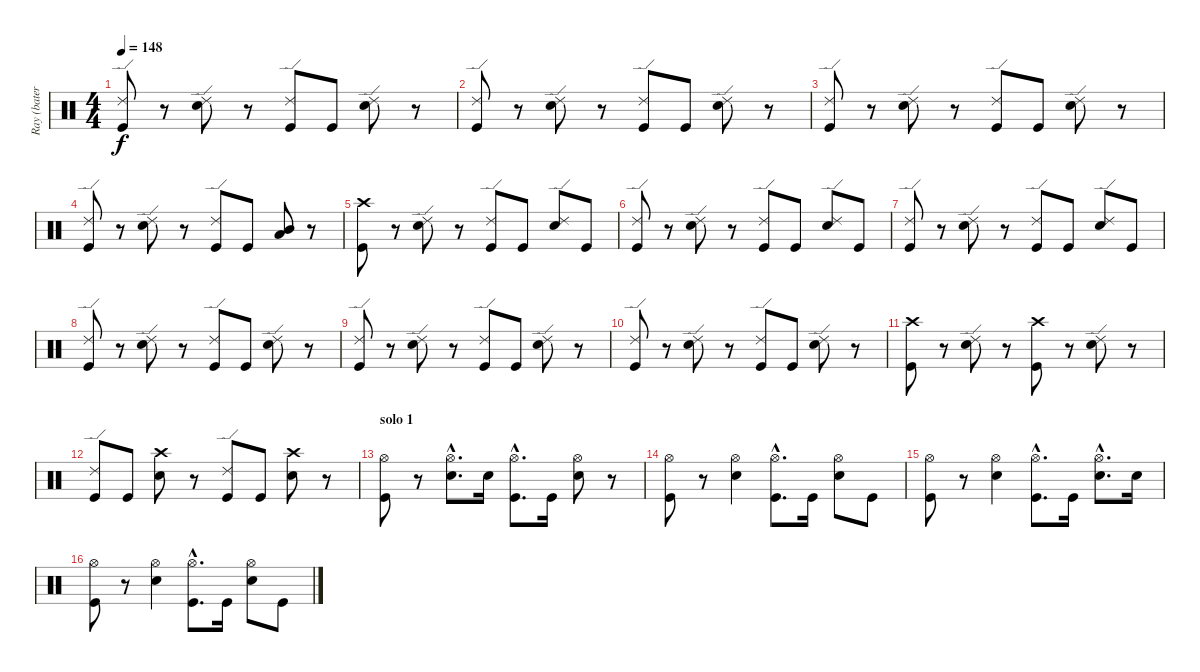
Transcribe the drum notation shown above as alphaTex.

\track ("Ray (batería)" "Ray (bater") {instrument percussion}
\staff {score}
\articulation defaults
\ts (4 4)
\tempo 148
\clef neutral
\ks c
("Ride (edge) 2" "Kick (hit)").8{dy f} r.8 ("Ride (edge) 2" "Snare (hit) 2").8 r.8 ("Ride (edge) 2" "Kick (hit)").8 "Kick (hit)".8 ("Ride (edge) 2" "Snare (hit) 2").8 r.8 |
("Ride (edge) 2" "Kick (hit)").8 r.8 ("Ride (edge) 2" "Snare (hit) 2").8 r.8 ("Ride (edge) 2" "Kick (hit)").8 "Kick (hit)".8 ("Ride (edge) 2" "Snare (hit) 2").8 r.8 |
("Ride (edge) 2" "Kick (hit)").8 r.8 ("Ride (edge) 2" "Snare (hit) 2").8 r.8 ("Ride (edge) 2" "Kick (hit)").8 "Kick (hit)".8 ("Ride (edge) 2" "Snare (hit) 2").8 r.8 |
("Ride (edge) 2" "Kick (hit)").8 r.8 ("Ride (edge) 2" "Snare (hit) 2").8 r.8 ("Ride (edge) 2" "Kick (hit)").8 "Kick (hit)".8 ("Mid Tom (hit)" "Low Tom (hit)").8 r.8 |
("Crash high (hit)" "Kick (hit)").8 r.8 ("Ride (edge) 2" "Snare (hit) 2").8 r.8 ("Ride (edge) 2" "Kick (hit)").8 "Kick (hit)".8 ("Ride (edge) 2" "Snare (hit) 2").8 "Kick (hit)".8 |
("Ride (edge) 2" "Kick (hit)").8 r.8 ("Ride (edge) 2" "Snare (hit) 2").8 r.8 ("Ride (edge) 2" "Kick (hit)").8 "Kick (hit)".8 ("Ride (edge) 2" "Snare (hit) 2").8 "Kick (hit)".8 |
("Ride (edge) 2" "Kick (hit)").8 r.8 ("Ride (edge) 2" "Snare (hit) 2").8 r.8 ("Ride (edge) 2" "Kick (hit)").8 "Kick (hit)".8 ("Ride (edge) 2" "Snare (hit) 2").8 "Kick (hit)".8 |
("Ride (edge) 2" "Kick (hit)").8 r.8 ("Ride (edge) 2" "Snare (hit) 2").8 r.8 ("Ride (edge) 2" "Kick (hit)").8 "Kick (hit)".8 ("Ride (edge) 2" "Snare (hit) 2").8 r.8 |
("Ride (edge) 2" "Kick (hit)").8 r.8 ("Ride (edge) 2" "Snare (hit) 2").8 r.8 ("Ride (edge) 2" "Kick (hit)").8 "Kick (hit)".8 ("Ride (edge) 2" "Snare (hit) 2").8 r.8 |
("Ride (edge) 2" "Kick (hit)").8 r.8 ("Ride (edge) 2" "Snare (hit) 2").8 r.8 ("Ride (edge) 2" "Kick (hit)").8 "Kick (hit)".8 ("Ride (edge) 2" "Snare (hit) 2").8 r.8 |
("Crash high (hit)" "Kick (hit)").8 r.8 ("Ride (edge) 2" "Snare (hit) 2").8 r.8 ("Crash high (hit)" "Kick (hit)").8 r.8 ("Ride (edge) 2" "Snare (hit) 2").8 r.8 |
("Ride (edge) 2" "Kick (hit)").8 "Kick (hit)".8 ("Crash high (hit)" "Snare (hit) 2").8 r.8 ("Ride (edge) 2" "Kick (hit)").8 "Kick (hit)".8 ("Crash high (hit)" "Snare (hit) 2").8 r.8 |
\section ("" "solo 1")
("Hi-Hat (open)" "Kick (hit)").8 r.8 ("Hi-Hat (open)"{hac} "Snare (hit) 2"{hac}).8{d} "Snare (hit) 2".16 ("Hi-Hat (open)"{hac} "Kick (hit)"{hac}).8{d} "Kick (hit)".16 ("Hi-Hat (open)" "Snare (hit) 2").8 r.8 |
("Hi-Hat (open)" "Kick (hit)").8 r.8 ("Hi-Hat (open)" "Snare (hit) 2").4 ("Hi-Hat (open)"{hac} "Kick (hit)"{hac}).8{d} "Kick (hit)".16 ("Hi-Hat (open)" "Snare (hit) 2").8 "Kick (hit)".8 |
("Hi-Hat (open)" "Kick (hit)").8 r.8 ("Hi-Hat (open)" "Snare (hit) 2").4 ("Hi-Hat (open)"{hac} "Kick (hit)"{hac}).8{d} "Kick (hit)".16 ("Hi-Hat (open)"{hac} "Snare (hit) 2"{hac}).8{d} "Snare (hit) 2".16 |
("Hi-Hat (open)" "Kick (hit)").8 r.8 ("Hi-Hat (open)" "Snare (hit) 2").4 ("Hi-Hat (open)"{hac} "Kick (hit)"{hac}).8{d} "Kick (hit)".16 ("Hi-Hat (open)" "Snare (hit) 2").8 "Kick (hit)".8
